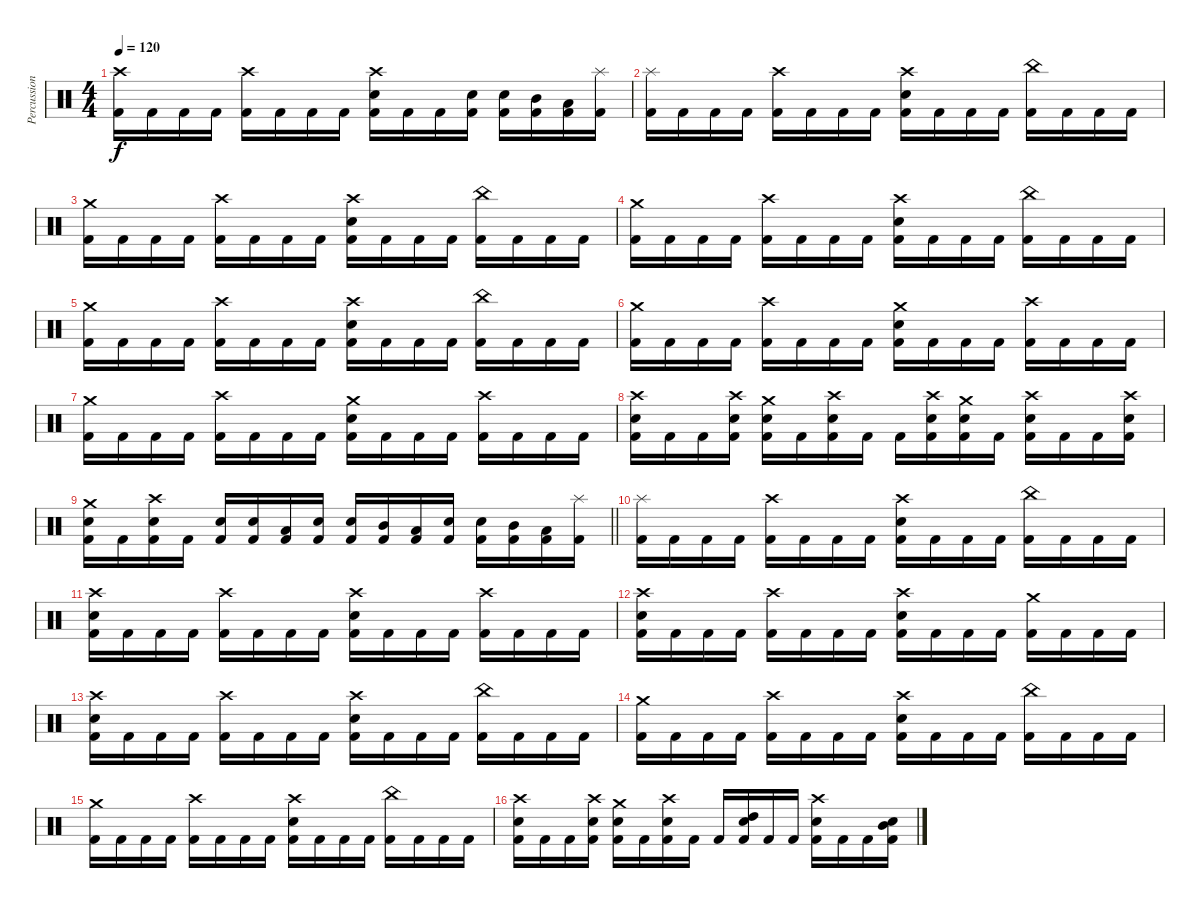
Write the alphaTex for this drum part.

\track ("Percussion" "Percussion") {instrument percussion}
\staff {score}
\articulation defaults
\ts (4 4)
\tempo 120
\clef neutral
\ks c
("Crash high (hit)" "Kick (hit) 2").16{dy f} "Kick (hit) 2".16 "Kick (hit) 2".16 "Kick (hit) 2".16 ("Crash high (hit)" "Kick (hit) 2").16 "Kick (hit) 2".16 "Kick (hit) 2".16 "Kick (hit) 2".16 ("Crash high (hit)" "Electric Snare (hit)" "Kick (hit) 2").16 "Kick (hit) 2".16 "Kick (hit) 2".16 ("Electric Snare (hit)" "Kick (hit) 2").16 ("Electric Snare (hit)" "Kick (hit) 2").16 ("Mid Tom (hit)" "Kick (hit) 2").16 ("Low Tom (hit)" "Kick (hit) 2").16 ("Splash (hit)" "Kick (hit) 2").16 |
("Splash (hit)" "Kick (hit) 2").16 "Kick (hit) 2".16 "Kick (hit) 2".16 "Kick (hit) 2".16 ("Crash high (hit)" "Kick (hit) 2").16 "Kick (hit) 2".16 "Kick (hit) 2".16 "Kick (hit) 2".16 ("Crash high (hit)" "Electric Snare (hit)" "Kick (hit) 2").16 "Kick (hit) 2".16 "Kick (hit) 2".16 "Kick (hit) 2".16 ("China (hit)" "Kick (hit) 2").16 "Kick (hit) 2".16 "Kick (hit) 2".16 "Kick (hit) 2".16 |
("Crash medium (hit)" "Kick (hit) 2").16 "Kick (hit) 2".16 "Kick (hit) 2".16 "Kick (hit) 2".16 ("Crash high (hit)" "Kick (hit) 2").16 "Kick (hit) 2".16 "Kick (hit) 2".16 "Kick (hit) 2".16 ("Crash high (hit)" "Electric Snare (hit)" "Kick (hit) 2").16 "Kick (hit) 2".16 "Kick (hit) 2".16 "Kick (hit) 2".16 ("China (hit)" "Kick (hit) 2").16 "Kick (hit) 2".16 "Kick (hit) 2".16 "Kick (hit) 2".16 |
("Crash medium (hit)" "Kick (hit) 2").16 "Kick (hit) 2".16 "Kick (hit) 2".16 "Kick (hit) 2".16 ("Crash high (hit)" "Kick (hit) 2").16 "Kick (hit) 2".16 "Kick (hit) 2".16 "Kick (hit) 2".16 ("Crash high (hit)" "Electric Snare (hit)" "Kick (hit) 2").16 "Kick (hit) 2".16 "Kick (hit) 2".16 "Kick (hit) 2".16 ("China (hit)" "Kick (hit) 2").16 "Kick (hit) 2".16 "Kick (hit) 2".16 "Kick (hit) 2".16 |
("Crash medium (hit)" "Kick (hit) 2").16 "Kick (hit) 2".16 "Kick (hit) 2".16 "Kick (hit) 2".16 ("Crash high (hit)" "Kick (hit) 2").16 "Kick (hit) 2".16 "Kick (hit) 2".16 "Kick (hit) 2".16 ("Crash high (hit)" "Electric Snare (hit)" "Kick (hit) 2").16 "Kick (hit) 2".16 "Kick (hit) 2".16 "Kick (hit) 2".16 ("China (hit)" "Kick (hit) 2").16 "Kick (hit) 2".16 "Kick (hit) 2".16 "Kick (hit) 2".16 |
("Crash medium (hit)" "Kick (hit) 2").16 "Kick (hit) 2".16 "Kick (hit) 2".16 "Kick (hit) 2".16 ("Crash high (hit)" "Kick (hit) 2").16 "Kick (hit) 2".16 "Kick (hit) 2".16 "Kick (hit) 2".16 ("Crash medium (hit)" "Electric Snare (hit)" "Kick (hit) 2").16 "Kick (hit) 2".16 "Kick (hit) 2".16 "Kick (hit) 2".16 ("Crash high (hit)" "Kick (hit) 2").16 "Kick (hit) 2".16 "Kick (hit) 2".16 "Kick (hit) 2".16 |
("Crash medium (hit)" "Kick (hit) 2").16 "Kick (hit) 2".16 "Kick (hit) 2".16 "Kick (hit) 2".16 ("Crash high (hit)" "Kick (hit) 2").16 "Kick (hit) 2".16 "Kick (hit) 2".16 "Kick (hit) 2".16 ("Crash medium (hit)" "Electric Snare (hit)" "Kick (hit) 2").16 "Kick (hit) 2".16 "Kick (hit) 2".16 "Kick (hit) 2".16 ("Crash high (hit)" "Kick (hit) 2").16 "Kick (hit) 2".16 "Kick (hit) 2".16 "Kick (hit) 2".16 |
("Crash high (hit)" "Electric Snare (hit)" "Kick (hit) 2").16 "Kick (hit) 2".16 "Kick (hit) 2".16 ("Crash high (hit)" "Electric Snare (hit)" "Kick (hit) 2").16 ("Crash medium (hit)" "Electric Snare (hit)" "Kick (hit) 2").16 "Kick (hit) 2".16 ("Crash high (hit)" "Electric Snare (hit)" "Kick (hit) 2").16 "Kick (hit) 2".16 "Kick (hit) 2".16 ("Crash high (hit)" "Electric Snare (hit)" "Kick (hit) 2").16 ("Crash medium (hit)" "Electric Snare (hit)" "Kick (hit) 2").16 "Kick (hit) 2".16 ("Crash high (hit)" "Electric Snare (hit)" "Kick (hit) 2").16 "Kick (hit) 2".16 "Kick (hit) 2".16 ("Crash high (hit)" "Electric Snare (hit)" "Kick (hit) 2").16 |
\barLineRight lightlight
("Crash medium (hit)" "Electric Snare (hit)" "Kick (hit) 2").16 "Kick (hit) 2".16 ("Electric Snare (hit)" "Crash high (hit)" "Kick (hit) 2").16 "Kick (hit) 2".16 ("Electric Snare (hit)" "Kick (hit) 2").16 ("Electric Snare (hit)" "Kick (hit) 2").16 ("Low Tom (hit)" "Kick (hit) 2").16 ("Electric Snare (hit)" "Kick (hit) 2").16 ("Electric Snare (hit)" "Kick (hit) 2").16 ("Mid Tom (hit)" "Kick (hit) 2").16 ("Low Tom (hit)" "Kick (hit) 2").16 ("Electric Snare (hit)" "Kick (hit) 2").16 ("Electric Snare (hit)" "Kick (hit) 2").16 ("Mid Tom (hit)" "Kick (hit) 2").16 ("Low Tom (hit)" "Kick (hit) 2").16 ("Splash (hit)" "Kick (hit) 2").16 |
("Splash (hit)" "Kick (hit) 2").16 "Kick (hit) 2".16 "Kick (hit) 2".16 "Kick (hit) 2".16 ("Crash high (hit)" "Kick (hit) 2").16 "Kick (hit) 2".16 "Kick (hit) 2".16 "Kick (hit) 2".16 ("Crash high (hit)" "Electric Snare (hit)" "Kick (hit) 2").16 "Kick (hit) 2".16 "Kick (hit) 2".16 "Kick (hit) 2".16 ("China (hit)" "Kick (hit) 2").16 "Kick (hit) 2".16 "Kick (hit) 2".16 "Kick (hit) 2".16 |
("Crash high (hit)" "Electric Snare (hit)" "Kick (hit) 2").16 "Kick (hit) 2".16 "Kick (hit) 2".16 "Kick (hit) 2".16 ("Crash high (hit)" "Kick (hit) 2").16 "Kick (hit) 2".16 "Kick (hit) 2".16 "Kick (hit) 2".16 ("Crash high (hit)" "Electric Snare (hit)" "Kick (hit) 2").16 "Kick (hit) 2".16 "Kick (hit) 2".16 "Kick (hit) 2".16 ("Crash high (hit)" "Kick (hit) 2").16 "Kick (hit) 2".16 "Kick (hit) 2".16 "Kick (hit) 2".16 |
("Crash high (hit)" "Electric Snare (hit)" "Kick (hit) 2").16 "Kick (hit) 2".16 "Kick (hit) 2".16 "Kick (hit) 2".16 ("Crash high (hit)" "Kick (hit) 2").16 "Kick (hit) 2".16 "Kick (hit) 2".16 "Kick (hit) 2".16 ("Crash high (hit)" "Electric Snare (hit)" "Kick (hit) 2").16 "Kick (hit) 2".16 "Kick (hit) 2".16 "Kick (hit) 2".16 ("Crash medium (hit)" "Kick (hit) 2").16 "Kick (hit) 2".16 "Kick (hit) 2".16 "Kick (hit) 2".16 |
("Crash high (hit)" "Electric Snare (hit)" "Kick (hit) 2").16 "Kick (hit) 2".16 "Kick (hit) 2".16 "Kick (hit) 2".16 ("Crash high (hit)" "Kick (hit) 2").16 "Kick (hit) 2".16 "Kick (hit) 2".16 "Kick (hit) 2".16 ("Crash high (hit)" "Electric Snare (hit)" "Kick (hit) 2").16 "Kick (hit) 2".16 "Kick (hit) 2".16 "Kick (hit) 2".16 ("China (hit)" "Kick (hit) 2").16 "Kick (hit) 2".16 "Kick (hit) 2".16 "Kick (hit) 2".16 |
("Crash medium (hit)" "Kick (hit) 2").16 "Kick (hit) 2".16 "Kick (hit) 2".16 "Kick (hit) 2".16 ("Crash high (hit)" "Kick (hit) 2").16 "Kick (hit) 2".16 "Kick (hit) 2".16 "Kick (hit) 2".16 ("Crash high (hit)" "Electric Snare (hit)" "Kick (hit) 2").16 "Kick (hit) 2".16 "Kick (hit) 2".16 "Kick (hit) 2".16 ("China (hit)" "Kick (hit) 2").16 "Kick (hit) 2".16 "Kick (hit) 2".16 "Kick (hit) 2".16 |
("Crash medium (hit)" "Kick (hit) 2").16 "Kick (hit) 2".16 "Kick (hit) 2".16 "Kick (hit) 2".16 ("Crash high (hit)" "Kick (hit) 2").16 "Kick (hit) 2".16 "Kick (hit) 2".16 "Kick (hit) 2".16 ("Crash high (hit)" "Electric Snare (hit)" "Kick (hit) 2").16 "Kick (hit) 2".16 "Kick (hit) 2".16 "Kick (hit) 2".16 ("China (hit)" "Kick (hit) 2").16 "Kick (hit) 2".16 "Kick (hit) 2".16 "Kick (hit) 2".16 |
("Crash high (hit)" "Electric Snare (hit)" "Kick (hit) 2").16 "Kick (hit) 2".16 "Kick (hit) 2".16 ("Crash high (hit)" "Electric Snare (hit)" "Kick (hit) 2").16 ("Crash medium (hit)" "Electric Snare (hit)" "Kick (hit) 2").16 "Kick (hit) 2".16 ("Crash high (hit)" "Electric Snare (hit)" "Kick (hit) 2").16 "Kick (hit) 2".16 "Kick (hit) 2".16 ("High Tom (hit)" "Electric Snare (hit)" "Kick (hit) 2").16 "Kick (hit) 2".16 "Kick (hit) 2".16 ("Crash high (hit)" "Electric Snare (hit)" "Kick (hit) 2").16 "Kick (hit) 2".16 "Kick (hit) 2".16 ("Mid Tom (hit)" "Electric Snare (hit)" "Kick (hit) 2").16
